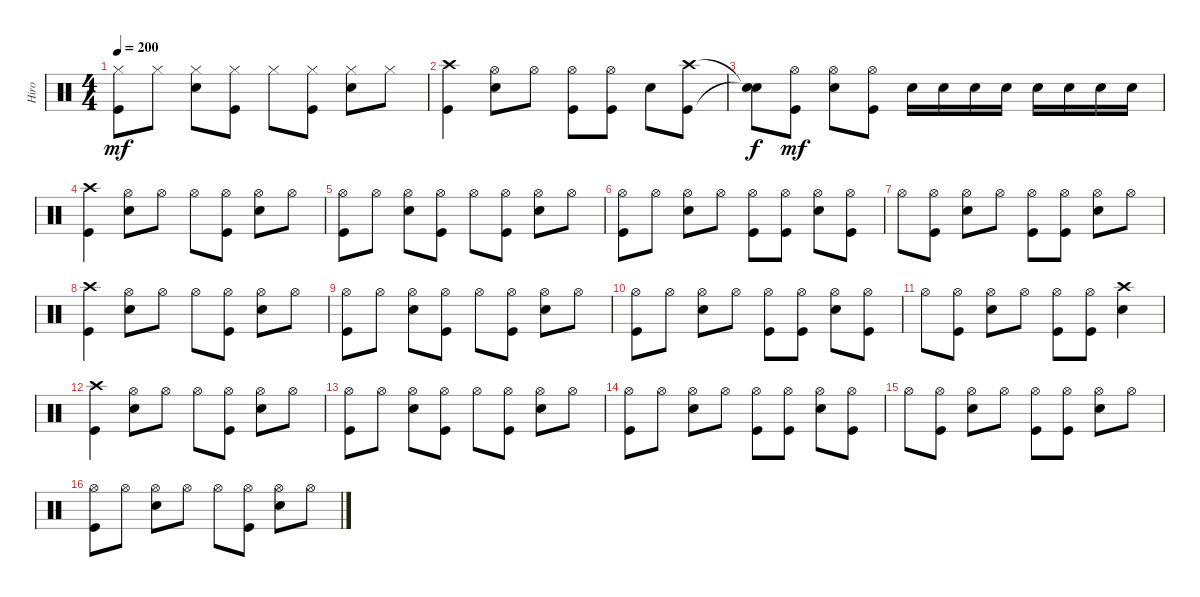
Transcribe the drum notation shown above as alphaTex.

\track ("Hiro" "Hiro") {instrument percussion}
\staff {score}
\articulation defaults
\ts (4 4)
\tempo 200
\clef neutral
\ks c
("Kick (hit)" "Hi-Hat (closed)").8{dy mf} "Hi-Hat (closed)".8 ("Electric Snare (hit)" "Hi-Hat (closed)").8 ("Kick (hit)" "Hi-Hat (closed)").8 "Hi-Hat (closed)".8 ("Kick (hit)" "Hi-Hat (closed)").8 ("Electric Snare (hit)" "Hi-Hat (closed)").8 "Hi-Hat (closed)".8 |
("Crash high (hit)" "Kick (hit)").4 ("Hi-Hat (open)" "Electric Snare (hit)").8 "Hi-Hat (open)".8 ("Hi-Hat (open)" "Kick (hit)").8 ("Hi-Hat (open)" "Kick (hit)").8 "Electric Snare (hit)".8 ("Kick (hit)" "Crash high (hit)").8 |
("Snare (hit)"{t} "Snare (hit)"{t}).8{dy f} ("Hi-Hat (open)" "Kick (hit)").8{dy mf} ("Hi-Hat (open)" "Electric Snare (hit)").8 ("Kick (hit)" "Hi-Hat (open)").8 "Electric Snare (hit)".16 "Electric Snare (hit)".16 "Electric Snare (hit)".16 "Electric Snare (hit)".16 "Electric Snare (hit)".16 "Electric Snare (hit)".16 "Electric Snare (hit)".16 "Electric Snare (hit)".16 |
("Kick (hit)" "Crash high (hit)").4 ("Hi-Hat (open)" "Electric Snare (hit)").8 "Hi-Hat (open)".8 "Hi-Hat (open)".8 ("Hi-Hat (open)" "Kick (hit)").8 ("Hi-Hat (open)" "Electric Snare (hit)").8 "Hi-Hat (open)".8 |
("Hi-Hat (open)" "Kick (hit)").8 "Hi-Hat (open)".8 ("Hi-Hat (open)" "Electric Snare (hit)").8 ("Hi-Hat (open)" "Kick (hit)").8 "Hi-Hat (open)".8 ("Hi-Hat (open)" "Kick (hit)").8 ("Hi-Hat (open)" "Electric Snare (hit)").8 "Hi-Hat (open)".8 |
("Hi-Hat (open)" "Kick (hit)").8 "Hi-Hat (open)".8 ("Hi-Hat (open)" "Electric Snare (hit)").8 "Hi-Hat (open)".8 ("Hi-Hat (open)" "Kick (hit)").8 ("Hi-Hat (open)" "Kick (hit)").8 ("Hi-Hat (open)" "Electric Snare (hit)").8 ("Hi-Hat (open)" "Kick (hit)").8 |
"Hi-Hat (open)".8 ("Hi-Hat (open)" "Kick (hit)").8 ("Hi-Hat (open)" "Electric Snare (hit)").8 "Hi-Hat (open)".8 ("Hi-Hat (open)" "Kick (hit)").8 ("Hi-Hat (open)" "Kick (hit)").8 ("Hi-Hat (open)" "Electric Snare (hit)").8 "Hi-Hat (open)".8 |
("Crash high (hit)" "Kick (hit)").4 ("Electric Snare (hit)" "Hi-Hat (open)").8 "Hi-Hat (open)".8 "Hi-Hat (open)".8 ("Kick (hit)" "Hi-Hat (open)").8 ("Electric Snare (hit)" "Hi-Hat (open)").8 "Hi-Hat (open)".8 |
("Kick (hit)" "Hi-Hat (open)").8 "Hi-Hat (open)".8 ("Electric Snare (hit)" "Hi-Hat (open)").8 ("Kick (hit)" "Hi-Hat (open)").8 "Hi-Hat (open)".8 ("Kick (hit)" "Hi-Hat (open)").8 ("Electric Snare (hit)" "Hi-Hat (open)").8 "Hi-Hat (open)".8 |
("Kick (hit)" "Hi-Hat (open)").8 "Hi-Hat (open)".8 ("Electric Snare (hit)" "Hi-Hat (open)").8 "Hi-Hat (open)".8 ("Kick (hit)" "Hi-Hat (open)").8 ("Kick (hit)" "Hi-Hat (open)").8 ("Electric Snare (hit)" "Hi-Hat (open)").8 ("Kick (hit)" "Hi-Hat (open)").8 |
"Hi-Hat (open)".8 ("Kick (hit)" "Hi-Hat (open)").8 ("Electric Snare (hit)" "Hi-Hat (open)").8 "Hi-Hat (open)".8 ("Kick (hit)" "Hi-Hat (open)").8 ("Kick (hit)" "Hi-Hat (open)").8 ("Electric Snare (hit)" "Crash high (hit)").4 |
("Crash high (hit)" "Kick (hit)").4 ("Electric Snare (hit)" "Hi-Hat (open)").8 "Hi-Hat (open)".8 "Hi-Hat (open)".8 ("Kick (hit)" "Hi-Hat (open)").8 ("Electric Snare (hit)" "Hi-Hat (open)").8 "Hi-Hat (open)".8 |
("Kick (hit)" "Hi-Hat (open)").8 "Hi-Hat (open)".8 ("Electric Snare (hit)" "Hi-Hat (open)").8 ("Kick (hit)" "Hi-Hat (open)").8 "Hi-Hat (open)".8 ("Kick (hit)" "Hi-Hat (open)").8 ("Electric Snare (hit)" "Hi-Hat (open)").8 "Hi-Hat (open)".8 |
("Kick (hit)" "Hi-Hat (open)").8 "Hi-Hat (open)".8 ("Electric Snare (hit)" "Hi-Hat (open)").8 "Hi-Hat (open)".8 ("Kick (hit)" "Hi-Hat (open)").8 ("Kick (hit)" "Hi-Hat (open)").8 ("Electric Snare (hit)" "Hi-Hat (open)").8 ("Kick (hit)" "Hi-Hat (open)").8 |
"Hi-Hat (open)".8 ("Kick (hit)" "Hi-Hat (open)").8 ("Electric Snare (hit)" "Hi-Hat (open)").8 "Hi-Hat (open)".8 ("Kick (hit)" "Hi-Hat (open)").8 ("Kick (hit)" "Hi-Hat (open)").8 ("Electric Snare (hit)" "Hi-Hat (open)").8 "Hi-Hat (open)".8 |
("Hi-Hat (open)" "Kick (hit)").8 "Hi-Hat (open)".8 ("Electric Snare (hit)" "Hi-Hat (open)").8 "Hi-Hat (open)".8 "Hi-Hat (open)".8 ("Kick (hit)" "Hi-Hat (open)").8 ("Electric Snare (hit)" "Hi-Hat (open)").8 "Hi-Hat (open)".8
